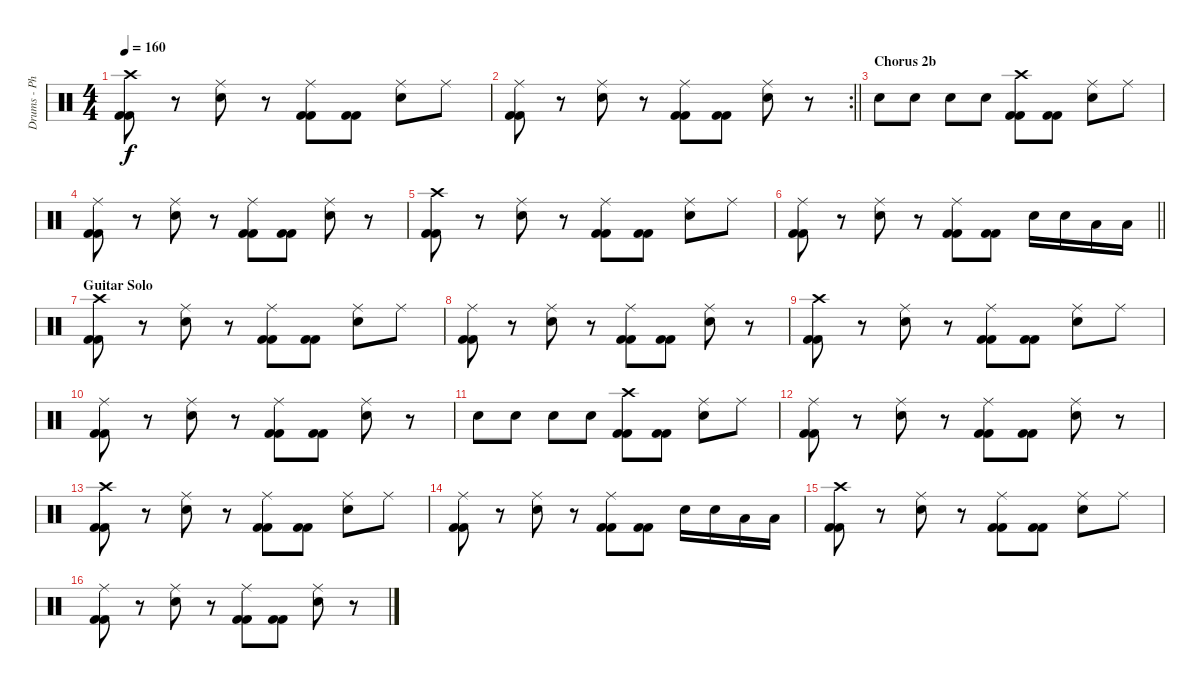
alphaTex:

\track ("Drums - Philipp Wirth" "Drums - Ph") {instrument percussion}
\staff {score}
\articulation defaults
\ts (4 4)
\tempo 160
\clef neutral
\ks c
("Crash high (hit)" "Kick (hit) 2" "Kick (hit) 2").8{dy f} r.8 ("Ride (middle)" "Electric Snare (hit)").8 r.8 ("Ride (middle)" "Kick (hit) 2" "Kick (hit) 2").8 ("Kick (hit) 2" "Kick (hit) 2").8 ("Ride (middle)" "Electric Snare (hit)").8 "Ride (middle)".8 |
\rc 2
\barLineRight lightlight
("Ride (middle)" "Kick (hit) 2" "Kick (hit) 2").8 r.8 ("Ride (middle)" "Electric Snare (hit)").8 r.8 ("Ride (middle)" "Kick (hit) 2" "Kick (hit) 2").8 ("Kick (hit) 2" "Kick (hit) 2").8 ("Ride (middle)" "Electric Snare (hit)").8 r.8 |
\section ("" "Chorus 2b")
"Electric Snare (hit)".8 "Electric Snare (hit)".8 "Electric Snare (hit)".8 "Electric Snare (hit)".8 ("Crash high (hit)" "Kick (hit) 2" "Kick (hit) 2").8 ("Kick (hit) 2" "Kick (hit) 2").8 ("Ride (middle)" "Electric Snare (hit)").8 "Ride (middle)".8 |
("Ride (middle)" "Kick (hit) 2" "Kick (hit) 2").8 r.8 ("Ride (middle)" "Electric Snare (hit)").8 r.8 ("Ride (middle)" "Kick (hit) 2" "Kick (hit) 2").8 ("Kick (hit) 2" "Kick (hit) 2").8 ("Ride (middle)" "Electric Snare (hit)").8 r.8 |
("Crash high (hit)" "Kick (hit) 2" "Kick (hit) 2").8 r.8 ("Ride (middle)" "Electric Snare (hit)").8 r.8 ("Ride (middle)" "Kick (hit) 2" "Kick (hit) 2").8 ("Kick (hit) 2" "Kick (hit) 2").8 ("Ride (middle)" "Electric Snare (hit)").8 "Ride (middle)".8 |
\barLineRight lightlight
("Ride (middle)" "Kick (hit) 2" "Kick (hit) 2").8 r.8 ("Ride (middle)" "Electric Snare (hit)").8 r.8 ("Ride (middle)" "Kick (hit) 2" "Kick (hit) 2").8 ("Kick (hit) 2" "Kick (hit) 2").8 "Electric Snare (hit)".16 "Electric Snare (hit)".16 "Low Tom (hit)".16 "Low Tom (hit)".16 |
\section ("" "Guitar Solo")
("Crash high (hit)" "Kick (hit) 2" "Kick (hit) 2").8 r.8 ("Ride (middle)" "Electric Snare (hit)").8 r.8 ("Ride (middle)" "Kick (hit) 2" "Kick (hit) 2").8 ("Kick (hit) 2" "Kick (hit) 2").8 ("Ride (middle)" "Electric Snare (hit)").8 "Ride (middle)".8 |
("Ride (middle)" "Kick (hit) 2" "Kick (hit) 2").8 r.8 ("Ride (middle)" "Electric Snare (hit)").8 r.8 ("Ride (middle)" "Kick (hit) 2" "Kick (hit) 2").8 ("Kick (hit) 2" "Kick (hit) 2").8 ("Ride (middle)" "Electric Snare (hit)").8 r.8 |
("Crash high (hit)" "Kick (hit) 2" "Kick (hit) 2").8 r.8 ("Ride (middle)" "Electric Snare (hit)").8 r.8 ("Ride (middle)" "Kick (hit) 2" "Kick (hit) 2").8 ("Kick (hit) 2" "Kick (hit) 2").8 ("Ride (middle)" "Electric Snare (hit)").8 "Ride (middle)".8 |
("Ride (middle)" "Kick (hit) 2" "Kick (hit) 2").8 r.8 ("Ride (middle)" "Electric Snare (hit)").8 r.8 ("Ride (middle)" "Kick (hit) 2" "Kick (hit) 2").8 ("Kick (hit) 2" "Kick (hit) 2").8 ("Ride (middle)" "Electric Snare (hit)").8 r.8 |
"Electric Snare (hit)".8 "Electric Snare (hit)".8 "Electric Snare (hit)".8 "Electric Snare (hit)".8 ("Crash high (hit)" "Kick (hit) 2" "Kick (hit) 2").8 ("Kick (hit) 2" "Kick (hit) 2").8 ("Ride (middle)" "Electric Snare (hit)").8 "Ride (middle)".8 |
("Ride (middle)" "Kick (hit) 2" "Kick (hit) 2").8 r.8 ("Ride (middle)" "Electric Snare (hit)").8 r.8 ("Ride (middle)" "Kick (hit) 2" "Kick (hit) 2").8 ("Kick (hit) 2" "Kick (hit) 2").8 ("Ride (middle)" "Electric Snare (hit)").8 r.8 |
("Crash high (hit)" "Kick (hit) 2" "Kick (hit) 2").8 r.8 ("Ride (middle)" "Electric Snare (hit)").8 r.8 ("Ride (middle)" "Kick (hit) 2" "Kick (hit) 2").8 ("Kick (hit) 2" "Kick (hit) 2").8 ("Ride (middle)" "Electric Snare (hit)").8 "Ride (middle)".8 |
("Ride (middle)" "Kick (hit) 2" "Kick (hit) 2").8 r.8 ("Ride (middle)" "Electric Snare (hit)").8 r.8 ("Ride (middle)" "Kick (hit) 2" "Kick (hit) 2").8 ("Kick (hit) 2" "Kick (hit) 2").8 "Electric Snare (hit)".16 "Electric Snare (hit)".16 "Low Tom (hit)".16 "Low Tom (hit)".16 |
("Crash high (hit)" "Kick (hit) 2" "Kick (hit) 2").8 r.8 ("Ride (middle)" "Electric Snare (hit)").8 r.8 ("Ride (middle)" "Kick (hit) 2" "Kick (hit) 2").8 ("Kick (hit) 2" "Kick (hit) 2").8 ("Ride (middle)" "Electric Snare (hit)").8 "Ride (middle)".8 |
("Ride (middle)" "Kick (hit) 2" "Kick (hit) 2").8 r.8 ("Ride (middle)" "Electric Snare (hit)").8 r.8 ("Ride (middle)" "Kick (hit) 2" "Kick (hit) 2").8 ("Kick (hit) 2" "Kick (hit) 2").8 ("Ride (middle)" "Electric Snare (hit)").8 r.8
